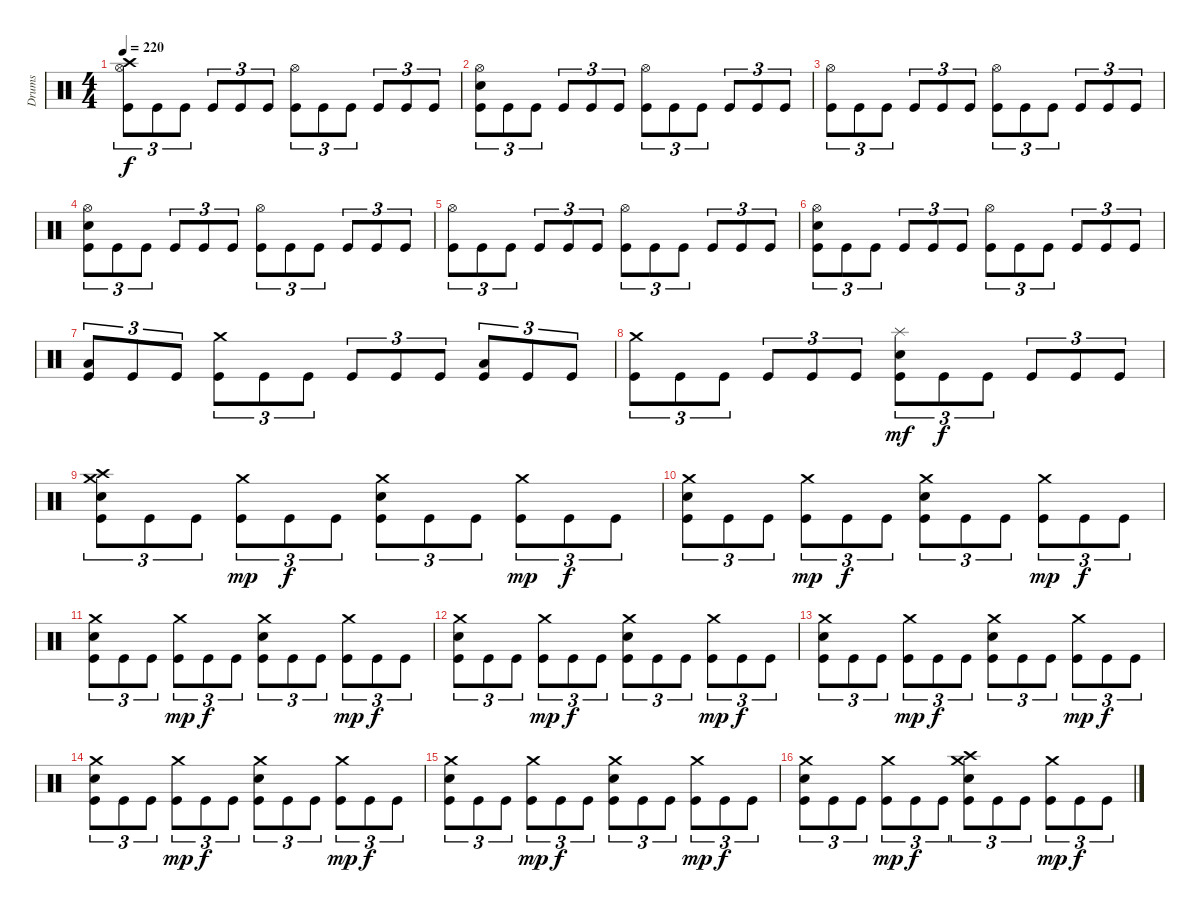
\track ("Drums" "Drums") {instrument percussion}
\staff {score}
\articulation defaults
\ts (4 4)
\tempo 220
\clef neutral
\ks c
("Crash high (hit)" "Hi-Hat (open)" "Kick (hit)").8{tu (3 2) dy f} "Kick (hit)".8{tu (3 2)} "Kick (hit)".8{tu (3 2)} "Kick (hit)".8{tu (3 2)} "Kick (hit)".8{tu (3 2)} "Kick (hit)".8{tu (3 2)} ("Hi-Hat (open)" "Kick (hit)").8{tu (3 2)} "Kick (hit)".8{tu (3 2)} "Kick (hit)".8{tu (3 2)} "Kick (hit)".8{tu (3 2)} "Kick (hit)".8{tu (3 2)} "Kick (hit)".8{tu (3 2)} |
("Hi-Hat (open)" "Electric Snare (hit)" "Kick (hit)").8{tu (3 2)} "Kick (hit)".8{tu (3 2)} "Kick (hit)".8{tu (3 2)} "Kick (hit)".8{tu (3 2)} "Kick (hit)".8{tu (3 2)} "Kick (hit)".8{tu (3 2)} ("Hi-Hat (open)" "Kick (hit)").8{tu (3 2)} "Kick (hit)".8{tu (3 2)} "Kick (hit)".8{tu (3 2)} "Kick (hit)".8{tu (3 2)} "Kick (hit)".8{tu (3 2)} "Kick (hit)".8{tu (3 2)} |
("Hi-Hat (open)" "Kick (hit)").8{tu (3 2)} "Kick (hit)".8{tu (3 2)} "Kick (hit)".8{tu (3 2)} "Kick (hit)".8{tu (3 2)} "Kick (hit)".8{tu (3 2)} "Kick (hit)".8{tu (3 2)} ("Hi-Hat (open)" "Kick (hit)").8{tu (3 2)} "Kick (hit)".8{tu (3 2)} "Kick (hit)".8{tu (3 2)} "Kick (hit)".8{tu (3 2)} "Kick (hit)".8{tu (3 2)} "Kick (hit)".8{tu (3 2)} |
("Hi-Hat (open)" "Electric Snare (hit)" "Kick (hit)").8{tu (3 2)} "Kick (hit)".8{tu (3 2)} "Kick (hit)".8{tu (3 2)} "Kick (hit)".8{tu (3 2)} "Kick (hit)".8{tu (3 2)} "Kick (hit)".8{tu (3 2)} ("Hi-Hat (open)" "Kick (hit)").8{tu (3 2)} "Kick (hit)".8{tu (3 2)} "Kick (hit)".8{tu (3 2)} "Kick (hit)".8{tu (3 2)} "Kick (hit)".8{tu (3 2)} "Kick (hit)".8{tu (3 2)} |
("Hi-Hat (open)" "Kick (hit)").8{tu (3 2)} "Kick (hit)".8{tu (3 2)} "Kick (hit)".8{tu (3 2)} "Kick (hit)".8{tu (3 2)} "Kick (hit)".8{tu (3 2)} "Kick (hit)".8{tu (3 2)} ("Hi-Hat (open)" "Kick (hit)").8{tu (3 2)} "Kick (hit)".8{tu (3 2)} "Kick (hit)".8{tu (3 2)} "Kick (hit)".8{tu (3 2)} "Kick (hit)".8{tu (3 2)} "Kick (hit)".8{tu (3 2)} |
("Hi-Hat (open)" "Electric Snare (hit)" "Kick (hit)").8{tu (3 2)} "Kick (hit)".8{tu (3 2)} "Kick (hit)".8{tu (3 2)} "Kick (hit)".8{tu (3 2)} "Kick (hit)".8{tu (3 2)} "Kick (hit)".8{tu (3 2)} ("Hi-Hat (open)" "Kick (hit)").8{tu (3 2)} "Kick (hit)".8{tu (3 2)} "Kick (hit)".8{tu (3 2)} "Kick (hit)".8{tu (3 2)} "Kick (hit)".8{tu (3 2)} "Kick (hit)".8{tu (3 2)} |
("Low Tom (hit)" "Kick (hit)").8{tu (3 2)} "Kick (hit)".8{tu (3 2)} "Kick (hit)".8{tu (3 2)} ("Crash medium (hit)" "Kick (hit)").8{tu (3 2)} "Kick (hit)".8{tu (3 2)} "Kick (hit)".8{tu (3 2)} "Kick (hit)".8{tu (3 2)} "Kick (hit)".8{tu (3 2)} "Kick (hit)".8{tu (3 2)} ("Low Floor Tom (hit)" "Kick (hit)").8{tu (3 2)} "Kick (hit)".8{tu (3 2)} "Kick (hit)".8{tu (3 2)} |
("Crash medium (hit)" "Kick (hit)").8{tu (3 2)} "Kick (hit)".8{tu (3 2)} "Kick (hit)".8{tu (3 2)} "Kick (hit)".8{tu (3 2)} "Kick (hit)".8{tu (3 2)} "Kick (hit)".8{tu (3 2)} ("Splash (hit)" "Electric Snare (hit)" "Kick (hit)").8{tu (3 2) dy mf} "Kick (hit)".8{tu (3 2) dy f} "Kick (hit)".8{tu (3 2)} "Kick (hit)".8{tu (3 2)} "Kick (hit)".8{tu (3 2)} "Kick (hit)".8{tu (3 2)} |
("Crash high (hit)" "Crash medium (hit)" "Electric Snare (hit)" "Kick (hit)").8{tu (3 2)} "Kick (hit)".8{tu (3 2)} "Kick (hit)".8{tu (3 2)} ("Crash medium (hit)" "Kick (hit)").8{tu (3 2) dy mp} "Kick (hit)".8{tu (3 2) dy f} "Kick (hit)".8{tu (3 2)} ("Crash medium (hit)" "Electric Snare (hit)" "Kick (hit)").8{tu (3 2)} "Kick (hit)".8{tu (3 2)} "Kick (hit)".8{tu (3 2)} ("Crash medium (hit)" "Kick (hit)").8{tu (3 2) dy mp} "Kick (hit)".8{tu (3 2) dy f} "Kick (hit)".8{tu (3 2)} |
("Crash medium (hit)" "Electric Snare (hit)" "Kick (hit)").8{tu (3 2)} "Kick (hit)".8{tu (3 2)} "Kick (hit)".8{tu (3 2)} ("Crash medium (hit)" "Kick (hit)").8{tu (3 2) dy mp} "Kick (hit)".8{tu (3 2) dy f} "Kick (hit)".8{tu (3 2)} ("Crash medium (hit)" "Electric Snare (hit)" "Kick (hit)").8{tu (3 2)} "Kick (hit)".8{tu (3 2)} "Kick (hit)".8{tu (3 2)} ("Crash medium (hit)" "Kick (hit)").8{tu (3 2) dy mp} "Kick (hit)".8{tu (3 2) dy f} "Kick (hit)".8{tu (3 2)} |
("Crash medium (hit)" "Electric Snare (hit)" "Kick (hit)").8{tu (3 2)} "Kick (hit)".8{tu (3 2)} "Kick (hit)".8{tu (3 2)} ("Crash medium (hit)" "Kick (hit)").8{tu (3 2) dy mp} "Kick (hit)".8{tu (3 2) dy f} "Kick (hit)".8{tu (3 2)} ("Crash medium (hit)" "Electric Snare (hit)" "Kick (hit)").8{tu (3 2)} "Kick (hit)".8{tu (3 2)} "Kick (hit)".8{tu (3 2)} ("Crash medium (hit)" "Kick (hit)").8{tu (3 2) dy mp} "Kick (hit)".8{tu (3 2) dy f} "Kick (hit)".8{tu (3 2)} |
("Crash medium (hit)" "Electric Snare (hit)" "Kick (hit)").8{tu (3 2)} "Kick (hit)".8{tu (3 2)} "Kick (hit)".8{tu (3 2)} ("Crash medium (hit)" "Kick (hit)").8{tu (3 2) dy mp} "Kick (hit)".8{tu (3 2) dy f} "Kick (hit)".8{tu (3 2)} ("Crash medium (hit)" "Electric Snare (hit)" "Kick (hit)").8{tu (3 2)} "Kick (hit)".8{tu (3 2)} "Kick (hit)".8{tu (3 2)} ("Crash medium (hit)" "Kick (hit)").8{tu (3 2) dy mp} "Kick (hit)".8{tu (3 2) dy f} "Kick (hit)".8{tu (3 2)} |
("Crash medium (hit)" "Electric Snare (hit)" "Kick (hit)").8{tu (3 2)} "Kick (hit)".8{tu (3 2)} "Kick (hit)".8{tu (3 2)} ("Crash medium (hit)" "Kick (hit)").8{tu (3 2) dy mp} "Kick (hit)".8{tu (3 2) dy f} "Kick (hit)".8{tu (3 2)} ("Crash medium (hit)" "Electric Snare (hit)" "Kick (hit)").8{tu (3 2)} "Kick (hit)".8{tu (3 2)} "Kick (hit)".8{tu (3 2)} ("Crash medium (hit)" "Kick (hit)").8{tu (3 2) dy mp} "Kick (hit)".8{tu (3 2) dy f} "Kick (hit)".8{tu (3 2)} |
("Crash medium (hit)" "Electric Snare (hit)" "Kick (hit)").8{tu (3 2)} "Kick (hit)".8{tu (3 2)} "Kick (hit)".8{tu (3 2)} ("Crash medium (hit)" "Kick (hit)").8{tu (3 2) dy mp} "Kick (hit)".8{tu (3 2) dy f} "Kick (hit)".8{tu (3 2)} ("Crash medium (hit)" "Electric Snare (hit)" "Kick (hit)").8{tu (3 2)} "Kick (hit)".8{tu (3 2)} "Kick (hit)".8{tu (3 2)} ("Crash medium (hit)" "Kick (hit)").8{tu (3 2) dy mp} "Kick (hit)".8{tu (3 2) dy f} "Kick (hit)".8{tu (3 2)} |
("Crash medium (hit)" "Electric Snare (hit)" "Kick (hit)").8{tu (3 2)} "Kick (hit)".8{tu (3 2)} "Kick (hit)".8{tu (3 2)} ("Crash medium (hit)" "Kick (hit)").8{tu (3 2) dy mp} "Kick (hit)".8{tu (3 2) dy f} "Kick (hit)".8{tu (3 2)} ("Crash medium (hit)" "Electric Snare (hit)" "Kick (hit)").8{tu (3 2)} "Kick (hit)".8{tu (3 2)} "Kick (hit)".8{tu (3 2)} ("Crash medium (hit)" "Kick (hit)").8{tu (3 2) dy mp} "Kick (hit)".8{tu (3 2) dy f} "Kick (hit)".8{tu (3 2)} |
("Crash medium (hit)" "Electric Snare (hit)" "Kick (hit)").8{tu (3 2)} "Kick (hit)".8{tu (3 2)} "Kick (hit)".8{tu (3 2)} ("Crash medium (hit)" "Kick (hit)").8{tu (3 2) dy mp} "Kick (hit)".8{tu (3 2) dy f} "Kick (hit)".8{tu (3 2)} ("Crash high (hit)" "Crash medium (hit)" "Electric Snare (hit)" "Kick (hit)").8{tu (3 2)} "Kick (hit)".8{tu (3 2)} "Kick (hit)".8{tu (3 2)} ("Crash medium (hit)" "Kick (hit)").8{tu (3 2) dy mp} "Kick (hit)".8{tu (3 2) dy f} "Kick (hit)".8{tu (3 2)}
